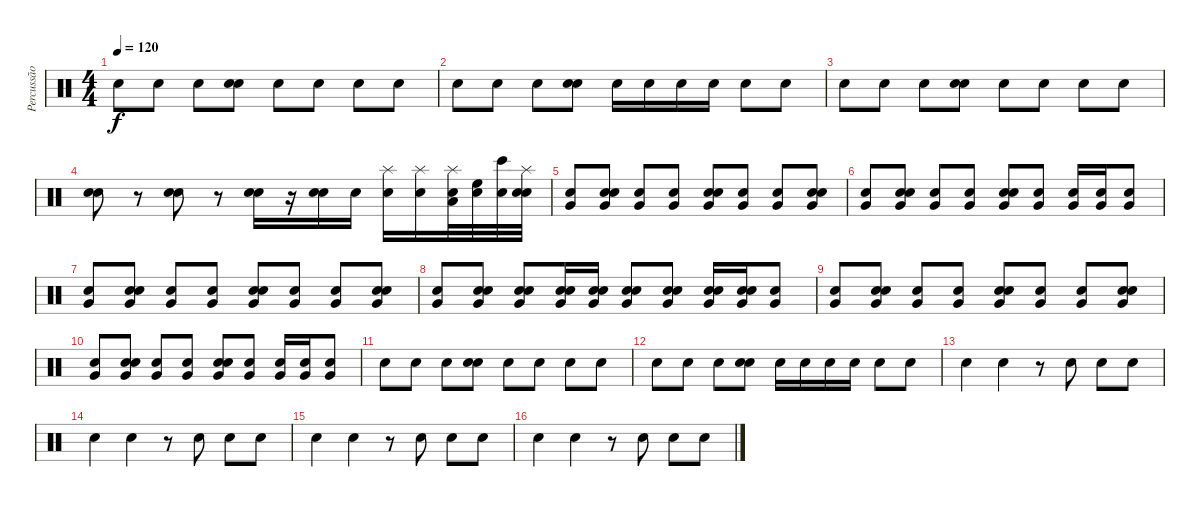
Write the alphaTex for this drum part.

\track ("Percussão" "Percussão") {instrument percussion}
\staff {score}
\articulation defaults
\ts (4 4)
\tempo 120
\clef neutral
\ks c "Snare (hit) 2".8{dy f} "Snare (hit) 2".8 "Electric Snare (hit)".8
("Snare (hit) 2" "Electric Snare (hit)").8 "Snare (hit) 2".8 "Snare (hit) 2".8 "Electric Snare (hit)".8 "Electric Snare (hit)".8 |
"Snare (hit) 2".8 "Snare (hit) 2".8 "Electric Snare (hit)".8 ("Snare (hit) 2" "Electric Snare (hit)").8 "Snare (hit) 2".16 "Snare (hit) 2".16 "Snare (hit) 2".16 "Snare (hit) 2".16 "Electric Snare (hit)".8 "Electric Snare (hit)".8 |
"Snare (hit) 2".8 "Snare (hit) 2".8 "Electric Snare (hit)".8 ("Snare (hit) 2" "Electric Snare (hit)").8 "Snare (hit) 2".8 "Snare (hit) 2".8 "Electric Snare (hit)".8 "Electric Snare (hit)".8 |
("Snare (hit) 2" "Electric Snare (hit)").8 r.8 ("Snare (hit) 2" "Electric Snare (hit)").8 r.8 ("Snare (hit) 2" "Electric Snare (hit)").16 r.16 ("Snare (hit) 2" "Electric Snare (hit)").16 "Snare (hit) 2".16 ("Splash (hit)" "Electric Snare (hit)").16 ("Splash (hit)" "Snare (hit) 2").16 ("Splash (hit)" "Low Floor Tom (hit)" "Snare (hit) 2").32 ("High Floor Tom (hit)" "Snare (hit) 2").32 ("Bongo High (hit)" "Snare (hit) 2").32 ("Splash (hit)" "Electric Snare (hit)" "Snare (hit) 2").32 |
("Snare (hit) 2" "Very Low Tom (hit)").8 ("Snare (hit) 2" "Electric Snare (hit)" "Very Low Tom (hit)").8 ("Snare (hit) 2" "Very Low Tom (hit)").8 ("Snare (hit) 2" "Very Low Tom (hit)").8 ("Snare (hit) 2" "Electric Snare (hit)" "Very Low Tom (hit)").8 ("Snare (hit) 2" "Very Low Tom (hit)").8 ("Snare (hit) 2" "Very Low Tom (hit)").8 ("Snare (hit) 2" "Electric Snare (hit)" "Very Low Tom (hit)").8 |
("Very Low Tom (hit)" "Snare (hit) 2").8 ("Very Low Tom (hit)" "Snare (hit) 2" "Electric Snare (hit)").8 ("Very Low Tom (hit)" "Snare (hit) 2").8 ("Very Low Tom (hit)" "Snare (hit) 2").8 ("Very Low Tom (hit)" "Snare (hit) 2" "Electric Snare (hit)").8 ("Very Low Tom (hit)" "Snare (hit) 2").8 ("Very Low Tom (hit)" "Snare (hit) 2").16 ("Very Low Tom (hit)" "Snare (hit) 2").16 ("Very Low Tom (hit)" "Electric Snare (hit)").8 |
("Snare (hit) 2" "Very Low Tom (hit)").8 ("Snare (hit) 2" "Electric Snare (hit)" "Very Low Tom (hit)").8 ("Snare (hit) 2" "Very Low Tom (hit)").8 ("Snare (hit) 2" "Very Low Tom (hit)").8 ("Snare (hit) 2" "Electric Snare (hit)" "Very Low Tom (hit)").8 ("Snare (hit) 2" "Very Low Tom (hit)").8 ("Snare (hit) 2" "Very Low Tom (hit)").8 ("Snare (hit) 2" "Electric Snare (hit)" "Very Low Tom (hit)").8 |
("Very Low Tom (hit)" "Snare (hit) 2").8 ("Very Low Tom (hit)" "Snare (hit) 2" "Electric Snare (hit)").8 ("Very Low Tom (hit)" "Snare (hit) 2" "Electric Snare (hit)").8 ("Very Low Tom (hit)" "Snare (hit) 2" "Electric Snare (hit)").16 ("Very Low Tom (hit)" "Snare (hit) 2" "Electric Snare (hit)").16 ("Very Low Tom (hit)" "Snare (hit) 2" "Electric Snare (hit)").8 ("Very Low Tom (hit)" "Snare (hit) 2" "Electric Snare (hit)").8 ("Very Low Tom (hit)" "Snare (hit) 2" "Electric Snare (hit)").16 ("Very Low Tom (hit)" "Snare (hit) 2" "Electric Snare (hit)").16 ("Very Low Tom (hit)" "Electric Snare (hit)").8 |
("Snare (hit) 2" "Very Low Tom (hit)").8 ("Snare (hit) 2" "Electric Snare (hit)" "Very Low Tom (hit)").8 ("Snare (hit) 2" "Very Low Tom (hit)").8 ("Snare (hit) 2" "Very Low Tom (hit)").8 ("Snare (hit) 2" "Electric Snare (hit)" "Very Low Tom (hit)").8 ("Snare (hit) 2" "Very Low Tom (hit)").8 ("Snare (hit) 2" "Very Low Tom (hit)").8 ("Snare (hit) 2" "Electric Snare (hit)" "Very Low Tom (hit)").8 |
("Very Low Tom (hit)" "Snare (hit) 2").8 ("Very Low Tom (hit)" "Snare (hit) 2" "Electric Snare (hit)").8 ("Very Low Tom (hit)" "Snare (hit) 2").8 ("Very Low Tom (hit)" "Snare (hit) 2").8 ("Very Low Tom (hit)" "Snare (hit) 2" "Electric Snare (hit)").8 ("Very Low Tom (hit)" "Snare (hit) 2").8 ("Very Low Tom (hit)" "Snare (hit) 2").16 ("Very Low Tom (hit)" "Snare (hit) 2").16 ("Very Low Tom (hit)" "Electric Snare (hit)").8 |
"Snare (hit) 2".8 "Snare (hit) 2".8 "Electric Snare (hit)".8 ("Snare (hit) 2" "Electric Snare (hit)").8 "Snare (hit) 2".8 "Snare (hit) 2".8 "Electric Snare (hit)".8 "Electric Snare (hit)".8 |
"Snare (hit) 2".8 "Snare (hit) 2".8 "Electric Snare (hit)".8 ("Snare (hit) 2" "Electric Snare (hit)").8 "Snare (hit) 2".16 "Snare (hit) 2".16 "Snare (hit) 2".16 "Snare (hit) 2".16 "Electric Snare (hit)".8 "Electric Snare (hit)".8 |
"Snare (hit) 2".4 "Electric Snare (hit)".4 r.8 "Snare (hit) 2".8 "Snare (hit) 2".8 "Electric Snare (hit)".8 |
"Snare (hit) 2".4 "Electric Snare (hit)".4 r.8 "Snare (hit) 2".8 "Snare (hit) 2".8 "Electric Snare (hit)".8 |
"Snare (hit) 2".4 "Electric Snare (hit)".4 r.8 "Snare (hit) 2".8 "Snare (hit) 2".8 "Electric Snare (hit)".8 |
"Snare (hit) 2".4 "Electric Snare (hit)".4 r.8 "Snare (hit) 2".8 "Snare (hit) 2".8 "Electric Snare (hit)".8
